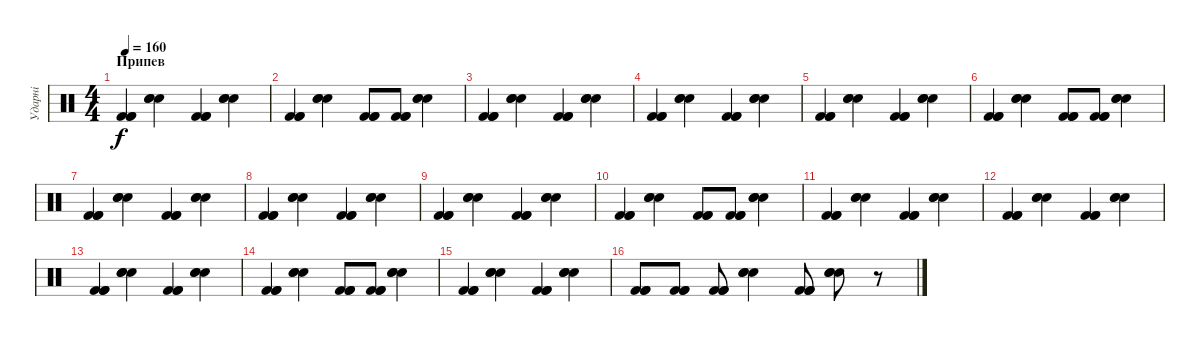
\track ("Ударні" "Ударні") {instrument percussion}
\staff {score}
\articulation defaults
\ts (4 4)
\section ("" "Припев")
\tempo 160
\clef neutral
\ks c
("Kick (hit) 2" "Kick (hit) 2" "Kick (hit) 2").4{dy f} ("Snare (hit) 2" "Snare (hit) 2" "Snare (hit) 2").4 ("Kick (hit) 2" "Kick (hit) 2" "Kick (hit) 2").4 ("Snare (hit) 2" "Snare (hit) 2" "Snare (hit) 2").4 |
("Kick (hit) 2" "Kick (hit) 2" "Kick (hit) 2").4 ("Snare (hit) 2" "Snare (hit) 2" "Snare (hit) 2").4 ("Kick (hit) 2" "Kick (hit) 2" "Kick (hit) 2").8 ("Kick (hit) 2" "Kick (hit) 2" "Kick (hit) 2").8 ("Snare (hit) 2" "Snare (hit) 2" "Snare (hit) 2").4 |
("Kick (hit) 2" "Kick (hit) 2" "Kick (hit) 2").4 ("Snare (hit) 2" "Snare (hit) 2" "Snare (hit) 2").4 ("Kick (hit) 2" "Kick (hit) 2" "Kick (hit) 2").4 ("Snare (hit) 2" "Snare (hit) 2" "Snare (hit) 2").4 |
("Kick (hit) 2" "Kick (hit) 2" "Kick (hit) 2").4 ("Snare (hit) 2" "Snare (hit) 2" "Snare (hit) 2").4 ("Kick (hit) 2" "Kick (hit) 2" "Kick (hit) 2").4 ("Snare (hit) 2" "Snare (hit) 2" "Snare (hit) 2").4 |
("Kick (hit) 2" "Kick (hit) 2" "Kick (hit) 2").4 ("Snare (hit) 2" "Snare (hit) 2" "Snare (hit) 2").4 ("Kick (hit) 2" "Kick (hit) 2" "Kick (hit) 2").4 ("Snare (hit) 2" "Snare (hit) 2" "Snare (hit) 2").4 |
("Kick (hit) 2" "Kick (hit) 2" "Kick (hit) 2").4 ("Snare (hit) 2" "Snare (hit) 2" "Snare (hit) 2").4 ("Kick (hit) 2" "Kick (hit) 2" "Kick (hit) 2").8 ("Kick (hit) 2" "Kick (hit) 2" "Kick (hit) 2").8 ("Snare (hit) 2" "Snare (hit) 2" "Snare (hit) 2").4 |
("Kick (hit) 2" "Kick (hit) 2" "Kick (hit) 2").4 ("Snare (hit) 2" "Snare (hit) 2" "Snare (hit) 2").4 ("Kick (hit) 2" "Kick (hit) 2" "Kick (hit) 2").4 ("Snare (hit) 2" "Snare (hit) 2" "Snare (hit) 2").4 |
("Kick (hit) 2" "Kick (hit) 2" "Kick (hit) 2").4 ("Snare (hit) 2" "Snare (hit) 2" "Snare (hit) 2").4 ("Kick (hit) 2" "Kick (hit) 2" "Kick (hit) 2").4 ("Snare (hit) 2" "Snare (hit) 2" "Snare (hit) 2").4 |
("Kick (hit) 2" "Kick (hit) 2" "Kick (hit) 2").4 ("Snare (hit) 2" "Snare (hit) 2" "Snare (hit) 2").4 ("Kick (hit) 2" "Kick (hit) 2" "Kick (hit) 2").4 ("Snare (hit) 2" "Snare (hit) 2" "Snare (hit) 2").4 |
("Kick (hit) 2" "Kick (hit) 2" "Kick (hit) 2").4 ("Snare (hit) 2" "Snare (hit) 2" "Snare (hit) 2").4 ("Kick (hit) 2" "Kick (hit) 2" "Kick (hit) 2").8 ("Kick (hit) 2" "Kick (hit) 2" "Kick (hit) 2").8 ("Snare (hit) 2" "Snare (hit) 2" "Snare (hit) 2").4 |
("Kick (hit) 2" "Kick (hit) 2" "Kick (hit) 2").4 ("Snare (hit) 2" "Snare (hit) 2" "Snare (hit) 2").4 ("Kick (hit) 2" "Kick (hit) 2" "Kick (hit) 2").4 ("Snare (hit) 2" "Snare (hit) 2" "Snare (hit) 2").4 |
("Kick (hit) 2" "Kick (hit) 2" "Kick (hit) 2").4 ("Snare (hit) 2" "Snare (hit) 2" "Snare (hit) 2").4 ("Kick (hit) 2" "Kick (hit) 2" "Kick (hit) 2").4 ("Snare (hit) 2" "Snare (hit) 2" "Snare (hit) 2").4 |
("Kick (hit) 2" "Kick (hit) 2" "Kick (hit) 2").4 ("Snare (hit) 2" "Snare (hit) 2" "Snare (hit) 2").4 ("Kick (hit) 2" "Kick (hit) 2" "Kick (hit) 2").4 ("Snare (hit) 2" "Snare (hit) 2" "Snare (hit) 2").4 |
("Kick (hit) 2" "Kick (hit) 2" "Kick (hit) 2").4 ("Snare (hit) 2" "Snare (hit) 2" "Snare (hit) 2").4 ("Kick (hit) 2" "Kick (hit) 2" "Kick (hit) 2").8 ("Kick (hit) 2" "Kick (hit) 2" "Kick (hit) 2").8 ("Snare (hit) 2" "Snare (hit) 2" "Snare (hit) 2").4 |
("Kick (hit) 2" "Kick (hit) 2" "Kick (hit) 2").4 ("Snare (hit) 2" "Snare (hit) 2" "Snare (hit) 2").4 ("Kick (hit) 2" "Kick (hit) 2" "Kick (hit) 2").4 ("Snare (hit) 2" "Snare (hit) 2" "Snare (hit) 2").4 |
("Kick (hit) 2" "Kick (hit) 2" "Kick (hit) 2").8 ("Kick (hit) 2" "Kick (hit) 2" "Kick (hit) 2").8 ("Kick (hit) 2" "Kick (hit) 2" "Kick (hit) 2").8 ("Snare (hit) 2" "Snare (hit) 2" "Snare (hit) 2").4 ("Kick (hit) 2" "Kick (hit) 2" "Kick (hit) 2").8 ("Snare (hit) 2" "Snare (hit) 2" "Snare (hit) 2").8 r.8
